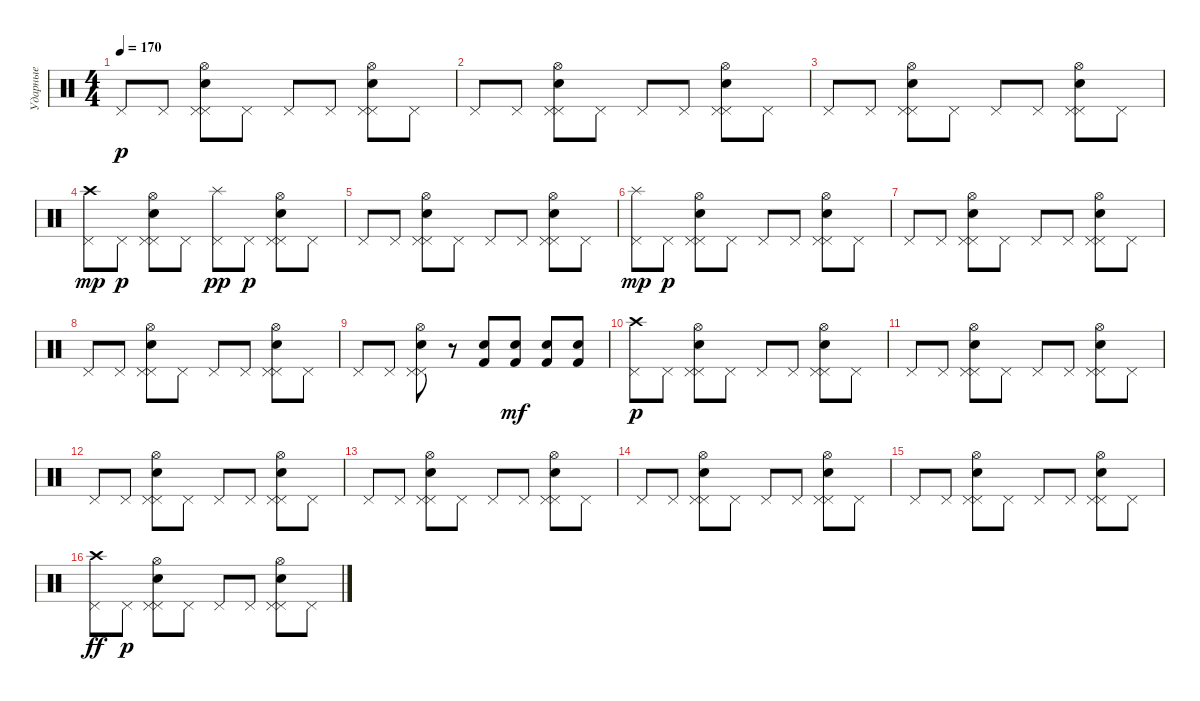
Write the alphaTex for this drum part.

\track ("Ударные" "Ударные") {instrument percussion}
\staff {score}
\articulation defaults
\ts (4 4)
\tempo 170
\clef neutral
\ks c "Pedal Hi-Hat (hit)".8{dy p} "Pedal Hi-Hat (hit)".8
("Pedal Hi-Hat (hit)" "Snare (hit) 2" "Pedal Hi-Hat (hit)" "Hi-Hat (open)").8 "Pedal Hi-Hat (hit)".8 "Pedal Hi-Hat (hit)".8 "Pedal Hi-Hat (hit)".8 ("Pedal Hi-Hat (hit)" "Snare (hit) 2" "Pedal Hi-Hat (hit)" "Hi-Hat (open)").8 "Pedal Hi-Hat (hit)".8 |
"Pedal Hi-Hat (hit)".8 "Pedal Hi-Hat (hit)".8 ("Pedal Hi-Hat (hit)" "Snare (hit) 2" "Pedal Hi-Hat (hit)" "Hi-Hat (open)").8 "Pedal Hi-Hat (hit)".8 "Pedal Hi-Hat (hit)".8 "Pedal Hi-Hat (hit)".8 ("Pedal Hi-Hat (hit)" "Snare (hit) 2" "Pedal Hi-Hat (hit)" "Hi-Hat (open)").8 "Pedal Hi-Hat (hit)".8 |
"Pedal Hi-Hat (hit)".8 "Pedal Hi-Hat (hit)".8 ("Pedal Hi-Hat (hit)" "Snare (hit) 2" "Pedal Hi-Hat (hit)" "Hi-Hat (open)").8 "Pedal Hi-Hat (hit)".8 "Pedal Hi-Hat (hit)".8 "Pedal Hi-Hat (hit)".8 ("Pedal Hi-Hat (hit)" "Snare (hit) 2" "Pedal Hi-Hat (hit)" "Hi-Hat (open)").8 "Pedal Hi-Hat (hit)".8 |
("Pedal Hi-Hat (hit)" "Crash high (hit)").8{dy mp} "Pedal Hi-Hat (hit)".8{dy p} ("Pedal Hi-Hat (hit)" "Snare (hit) 2" "Pedal Hi-Hat (hit)" "Hi-Hat (open)").8 "Pedal Hi-Hat (hit)".8 ("Pedal Hi-Hat (hit)" "Splash (hit)").8{dy pp} "Pedal Hi-Hat (hit)".8{dy p} ("Pedal Hi-Hat (hit)" "Snare (hit) 2" "Pedal Hi-Hat (hit)" "Hi-Hat (open)").8 "Pedal Hi-Hat (hit)".8 |
"Pedal Hi-Hat (hit)".8 "Pedal Hi-Hat (hit)".8 ("Pedal Hi-Hat (hit)" "Snare (hit) 2" "Pedal Hi-Hat (hit)" "Hi-Hat (open)").8 "Pedal Hi-Hat (hit)".8 "Pedal Hi-Hat (hit)".8 "Pedal Hi-Hat (hit)".8 ("Pedal Hi-Hat (hit)" "Snare (hit) 2" "Pedal Hi-Hat (hit)" "Hi-Hat (open)").8 "Pedal Hi-Hat (hit)".8 |
("Pedal Hi-Hat (hit)" "Splash (hit)").8{dy mp} "Pedal Hi-Hat (hit)".8{dy p} ("Pedal Hi-Hat (hit)" "Snare (hit) 2" "Pedal Hi-Hat (hit)" "Hi-Hat (open)").8 "Pedal Hi-Hat (hit)".8 "Pedal Hi-Hat (hit)".8 "Pedal Hi-Hat (hit)".8 ("Pedal Hi-Hat (hit)" "Snare (hit) 2" "Pedal Hi-Hat (hit)" "Hi-Hat (open)").8 "Pedal Hi-Hat (hit)".8 |
"Pedal Hi-Hat (hit)".8 "Pedal Hi-Hat (hit)".8 ("Pedal Hi-Hat (hit)" "Snare (hit) 2" "Pedal Hi-Hat (hit)" "Hi-Hat (open)").8 "Pedal Hi-Hat (hit)".8 "Pedal Hi-Hat (hit)".8 "Pedal Hi-Hat (hit)".8 ("Pedal Hi-Hat (hit)" "Snare (hit) 2" "Pedal Hi-Hat (hit)" "Hi-Hat (open)").8 "Pedal Hi-Hat (hit)".8 |
"Pedal Hi-Hat (hit)".8 "Pedal Hi-Hat (hit)".8 ("Pedal Hi-Hat (hit)" "Snare (hit) 2" "Pedal Hi-Hat (hit)" "Hi-Hat (open)").8 "Pedal Hi-Hat (hit)".8 "Pedal Hi-Hat (hit)".8 "Pedal Hi-Hat (hit)".8 ("Pedal Hi-Hat (hit)" "Snare (hit) 2" "Pedal Hi-Hat (hit)" "Hi-Hat (open)").8 "Pedal Hi-Hat (hit)".8 |
"Pedal Hi-Hat (hit)".8 "Pedal Hi-Hat (hit)".8 ("Pedal Hi-Hat (hit)" "Snare (hit) 2" "Pedal Hi-Hat (hit)" "Hi-Hat (open)").8 r.8 ("Kick (hit) 2" "Snare (hit) 2").8 ("Kick (hit) 2" "Snare (hit) 2").8{dy mf} ("Kick (hit) 2" "Snare (hit) 2").8 ("Kick (hit) 2" "Snare (hit) 2").8 |
("Pedal Hi-Hat (hit)" "Crash high (hit)").8{dy p} "Pedal Hi-Hat (hit)".8 ("Pedal Hi-Hat (hit)" "Snare (hit) 2" "Pedal Hi-Hat (hit)" "Hi-Hat (open)").8 "Pedal Hi-Hat (hit)".8 "Pedal Hi-Hat (hit)".8 "Pedal Hi-Hat (hit)".8 ("Pedal Hi-Hat (hit)" "Snare (hit) 2" "Pedal Hi-Hat (hit)" "Hi-Hat (open)").8 "Pedal Hi-Hat (hit)".8 |
"Pedal Hi-Hat (hit)".8 "Pedal Hi-Hat (hit)".8 ("Pedal Hi-Hat (hit)" "Snare (hit) 2" "Pedal Hi-Hat (hit)" "Hi-Hat (open)").8 "Pedal Hi-Hat (hit)".8 "Pedal Hi-Hat (hit)".8 "Pedal Hi-Hat (hit)".8 ("Pedal Hi-Hat (hit)" "Snare (hit) 2" "Pedal Hi-Hat (hit)" "Hi-Hat (open)").8 "Pedal Hi-Hat (hit)".8 |
"Pedal Hi-Hat (hit)".8 "Pedal Hi-Hat (hit)".8 ("Pedal Hi-Hat (hit)" "Snare (hit) 2" "Pedal Hi-Hat (hit)" "Hi-Hat (open)").8 "Pedal Hi-Hat (hit)".8 "Pedal Hi-Hat (hit)".8 "Pedal Hi-Hat (hit)".8 ("Pedal Hi-Hat (hit)" "Snare (hit) 2" "Pedal Hi-Hat (hit)" "Hi-Hat (open)").8 "Pedal Hi-Hat (hit)".8 |
"Pedal Hi-Hat (hit)".8 "Pedal Hi-Hat (hit)".8 ("Pedal Hi-Hat (hit)" "Snare (hit) 2" "Pedal Hi-Hat (hit)" "Hi-Hat (open)").8 "Pedal Hi-Hat (hit)".8 "Pedal Hi-Hat (hit)".8 "Pedal Hi-Hat (hit)".8 ("Pedal Hi-Hat (hit)" "Snare (hit) 2" "Pedal Hi-Hat (hit)" "Hi-Hat (open)").8 "Pedal Hi-Hat (hit)".8 |
"Pedal Hi-Hat (hit)".8 "Pedal Hi-Hat (hit)".8 ("Pedal Hi-Hat (hit)" "Snare (hit) 2" "Pedal Hi-Hat (hit)" "Hi-Hat (open)").8 "Pedal Hi-Hat (hit)".8 "Pedal Hi-Hat (hit)".8 "Pedal Hi-Hat (hit)".8 ("Pedal Hi-Hat (hit)" "Snare (hit) 2" "Pedal Hi-Hat (hit)" "Hi-Hat (open)").8 "Pedal Hi-Hat (hit)".8 |
"Pedal Hi-Hat (hit)".8 "Pedal Hi-Hat (hit)".8 ("Pedal Hi-Hat (hit)" "Snare (hit) 2" "Pedal Hi-Hat (hit)" "Hi-Hat (open)").8 "Pedal Hi-Hat (hit)".8 "Pedal Hi-Hat (hit)".8 "Pedal Hi-Hat (hit)".8 ("Pedal Hi-Hat (hit)" "Snare (hit) 2" "Pedal Hi-Hat (hit)" "Hi-Hat (open)").8 "Pedal Hi-Hat (hit)".8 |
("Pedal Hi-Hat (hit)" "Crash high (hit)").8{dy ff} "Pedal Hi-Hat (hit)".8{dy p} ("Pedal Hi-Hat (hit)" "Snare (hit) 2" "Pedal Hi-Hat (hit)" "Hi-Hat (open)").8 "Pedal Hi-Hat (hit)".8 "Pedal Hi-Hat (hit)".8 "Pedal Hi-Hat (hit)".8 ("Pedal Hi-Hat (hit)" "Snare (hit) 2" "Pedal Hi-Hat (hit)" "Hi-Hat (open)").8 "Pedal Hi-Hat (hit)".8
